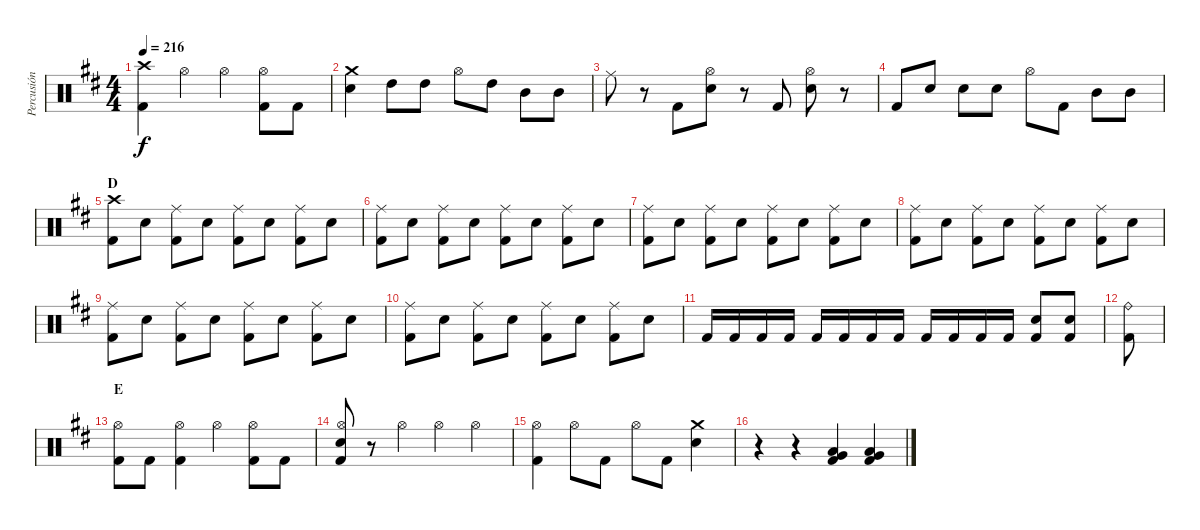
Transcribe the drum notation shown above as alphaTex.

\track ("Percusión" "Percusión") {instrument percussion}
\staff {score}
\articulation defaults
\ts (4 4)
\tempo 216
\clef neutral
\ks d
("Crash high (hit)" "Kick (hit) 2").4{dy f} "Hi-Hat (open)".4 "Hi-Hat (open)".4 ("Hi-Hat (open)" "Kick (hit) 2").8 "Kick (hit) 2".8 |
("Crash medium (hit)" "Electric Snare (hit)").4 "High Tom (hit)".8 "High Tom (hit)".8 "Hi-Hat (open)".8 "High Tom (hit)".8 "Mid Tom (hit)".8 "Mid Tom (hit)".8 |
"Ride (middle)".8 r.8 "Kick (hit) 2".8 ("Hi-Hat (open)" "Electric Snare (hit)").8 r.8 "Kick (hit) 2".8 ("Hi-Hat (open)" "Electric Snare (hit)").8 r.8 |
"Kick (hit) 2".8 "Electric Snare (hit)".8 "Electric Snare (hit)".8 "Electric Snare (hit)".8 "Hi-Hat (open)".8 "Kick (hit) 2".8 "Mid Tom (hit)".8 "Mid Tom (hit)".8 |
\section ("" "D")
("Crash high (hit)" "Kick (hit) 2").8 "Electric Snare (hit)".8 ("Ride (middle)" "Kick (hit) 2").8 "Electric Snare (hit)".8 ("Ride (middle)" "Kick (hit) 2").8 "Electric Snare (hit)".8 ("Ride (middle)" "Kick (hit) 2").8 "Electric Snare (hit)".8 |
("Ride (middle)" "Kick (hit) 2").8 "Electric Snare (hit)".8 ("Ride (middle)" "Kick (hit) 2").8 "Electric Snare (hit)".8 ("Ride (middle)" "Kick (hit) 2").8 "Electric Snare (hit)".8 ("Ride (middle)" "Kick (hit) 2").8 "Electric Snare (hit)".8 |
("Ride (middle)" "Kick (hit) 2").8 "Electric Snare (hit)".8 ("Ride (middle)" "Kick (hit) 2").8 "Electric Snare (hit)".8 ("Ride (middle)" "Kick (hit) 2").8 "Electric Snare (hit)".8 ("Ride (middle)" "Kick (hit) 2").8 "Electric Snare (hit)".8 |
("Ride (middle)" "Kick (hit) 2").8 "Electric Snare (hit)".8 ("Ride (middle)" "Kick (hit) 2").8 "Electric Snare (hit)".8 ("Ride (middle)" "Kick (hit) 2").8 "Electric Snare (hit)".8 ("Ride (middle)" "Kick (hit) 2").8 "Electric Snare (hit)".8 |
("Ride (middle)" "Kick (hit) 2").8 "Electric Snare (hit)".8 ("Ride (middle)" "Kick (hit) 2").8 "Electric Snare (hit)".8 ("Ride (middle)" "Kick (hit) 2").8 "Electric Snare (hit)".8 ("Ride (middle)" "Kick (hit) 2").8 "Electric Snare (hit)".8 |
("Ride (middle)" "Kick (hit) 2").8 "Electric Snare (hit)".8 ("Ride (middle)" "Kick (hit) 2").8 "Electric Snare (hit)".8 ("Ride (middle)" "Kick (hit) 2").8 "Electric Snare (hit)".8 ("Ride (middle)" "Kick (hit) 2").8 "Electric Snare (hit)".8 |
"Kick (hit) 2".16 "Kick (hit) 2".16 "Kick (hit) 2".16 "Kick (hit) 2".16 "Kick (hit) 2".16 "Kick (hit) 2".16 "Kick (hit) 2".16 "Kick (hit) 2".16 "Kick (hit) 2".16 "Kick (hit) 2".16 "Kick (hit) 2".16 "Kick (hit) 2".16 ("Electric Snare (hit)" "Kick (hit) 2").8 ("Electric Snare (hit)" "Kick (hit) 2").8 |
("Ride (bell)" "Kick (hit) 2").8 |
\section ("" "E")
("Hi-Hat (open)" "Kick (hit) 2").8 "Kick (hit) 2".8 ("Hi-Hat (open)" "Kick (hit) 2").4 "Hi-Hat (open)".4 ("Hi-Hat (open)" "Kick (hit) 2").8 "Kick (hit) 2".8 |
("Hi-Hat (open)" "Electric Snare (hit)" "Kick (hit) 2").8 r.8 "Hi-Hat (open)".4 "Hi-Hat (open)".4 "Hi-Hat (open)".4 |
("Hi-Hat (open)" "Kick (hit) 2").4 "Hi-Hat (open)".8 "Kick (hit) 2".8 "Hi-Hat (open)".8 "Kick (hit) 2".8 ("Crash medium (hit)" "Electric Snare (hit)").4 |
r.4 r.4 ("Low Tom (hit)" "Very Low Tom (hit)" "Kick (hit) 2").4 ("Low Tom (hit)" "Very Low Tom (hit)" "Kick (hit) 2").4
